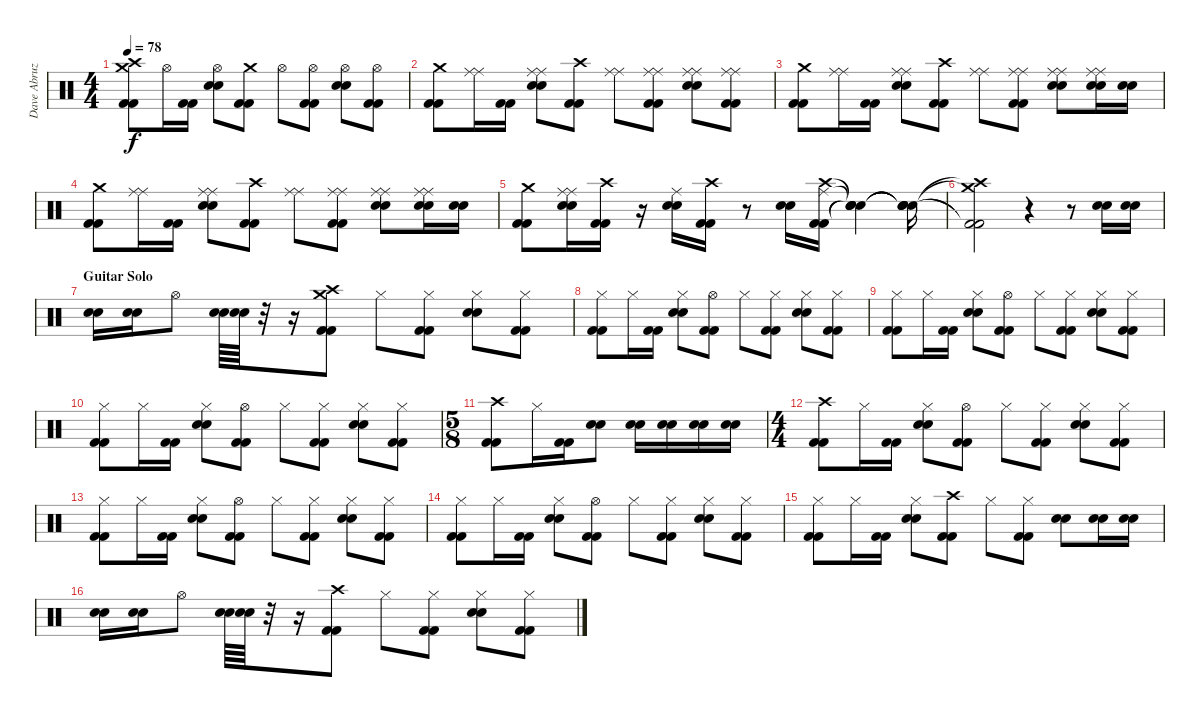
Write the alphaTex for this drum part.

\track ("Dave Abruzzese (live)" "Dave Abruz") {instrument percussion}
\staff {score}
\articulation defaults
\ts (4 4)
\tempo 78
\clef neutral
\ks c
("Crash medium (hit)" "Crash high (hit)" "Kick (hit) 2" "Kick (hit) 2").8{dy f} "Hi-Hat (open)".16 ("Kick (hit) 2" "Kick (hit) 2").16 ("Hi-Hat (open)" "Electric Snare (hit)" "Electric Snare (hit)").8 ("Crash medium (hit)" "Kick (hit) 2" "Kick (hit) 2").8 "Hi-Hat (open)".8 ("Hi-Hat (open)" "Kick (hit) 2" "Kick (hit) 2").8 ("Hi-Hat (open)" "Electric Snare (hit)" "Electric Snare (hit)").8 ("Hi-Hat (open)" "Kick (hit) 2" "Kick (hit) 2").8 |
("Crash medium (hit)" "Kick (hit) 2" "Kick (hit) 2").8 ("Ride (middle)" "Ride (middle)").16 ("Kick (hit) 2" "Kick (hit) 2").16 ("Ride (middle)" "Ride (middle)" "Electric Snare (hit)" "Electric Snare (hit)").8 ("Crash high (hit)" "Kick (hit) 2" "Kick (hit) 2").8 ("Ride (middle)" "Ride (middle)").8 ("Ride (middle)" "Ride (middle)" "Kick (hit) 2" "Kick (hit) 2").8 ("Ride (middle)" "Ride (middle)" "Electric Snare (hit)" "Electric Snare (hit)").8 ("Ride (middle)" "Ride (middle)" "Kick (hit) 2" "Kick (hit) 2").8 |
("Crash medium (hit)" "Kick (hit) 2" "Kick (hit) 2").8 ("Ride (middle)" "Ride (middle)").16 ("Kick (hit) 2" "Kick (hit) 2").16 ("Ride (middle)" "Ride (middle)" "Electric Snare (hit)" "Electric Snare (hit)").8 ("Crash high (hit)" "Kick (hit) 2" "Kick (hit) 2").8 ("Ride (middle)" "Ride (middle)").8 ("Ride (middle)" "Ride (middle)" "Kick (hit) 2" "Kick (hit) 2").8 ("Ride (middle)" "Ride (middle)" "Electric Snare (hit)" "Electric Snare (hit)").8 ("Ride (middle)" "Ride (middle)" "Electric Snare (hit)" "Electric Snare (hit)").16 ("Electric Snare (hit)" "Electric Snare (hit)").16 |
("Crash medium (hit)" "Kick (hit) 2" "Kick (hit) 2").8 ("Ride (middle)" "Ride (middle)").16 ("Kick (hit) 2" "Kick (hit) 2").16 ("Ride (middle)" "Ride (middle)" "Electric Snare (hit)" "Electric Snare (hit)").8 ("Crash high (hit)" "Kick (hit) 2" "Kick (hit) 2").8 ("Ride (middle)" "Ride (middle)").8 ("Ride (middle)" "Ride (middle)" "Kick (hit) 2" "Kick (hit) 2").8 ("Ride (middle)" "Ride (middle)" "Electric Snare (hit)" "Electric Snare (hit)").8 ("Ride (middle)" "Ride (middle)" "Electric Snare (hit)" "Electric Snare (hit)").16 ("Electric Snare (hit)" "Electric Snare (hit)").16 |
("Crash medium (hit)" "Kick (hit) 2" "Kick (hit) 2").8 ("Ride (middle)" "Ride (middle)" "Electric Snare (hit)" "Electric Snare (hit)").16 ("Crash high (hit)" "Kick (hit) 2" "Kick (hit) 2").16 r.16 ("Ride (middle)" "Electric Snare (hit)" "Electric Snare (hit)").16 ("Crash high (hit)" "Kick (hit) 2" "Kick (hit) 2").16 r.8 ("Electric Snare (hit)" "Electric Snare (hit)").16 ("Ride (middle)" "Crash high (hit)" "Kick (hit) 2" "Kick (hit) 2").16 ("Snare (hit)"{t} "Snare (hit)"{t} "Snare (hit)"{t} "Snare (hit)"{t}).4 ("Snare (hit)"{t} "Snare (hit)"{t} "Snare (hit)"{t} "Snare (hit)"{t}).16 |
("Crash medium (hit)"{t} "Crash high (hit)"{t} "Kick (hit) 2"{t} "Kick (hit) 2"{t}).2 r.4 r.8 ("Electric Snare (hit)" "Electric Snare (hit)").16 ("Electric Snare (hit)" "Electric Snare (hit)").16 |
\section ("" "Guitar Solo")
("Electric Snare (hit)" "Electric Snare (hit)").16 ("Electric Snare (hit)" "Electric Snare (hit)").16 "Hi-Hat (open)".8 ("Electric Snare (hit)" "Electric Snare (hit)").64 ("Electric Snare (hit)" "Electric Snare (hit)").64 r.32 r.16 ("Crash medium (hit)" "Crash high (hit)" "Kick (hit) 2" "Kick (hit) 2").8 "Hi-Hat (closed)".8 ("Hi-Hat (closed)" "Kick (hit) 2" "Kick (hit) 2").8 ("Hi-Hat (closed)" "Electric Snare (hit)" "Electric Snare (hit)").8 ("Hi-Hat (closed)" "Kick (hit) 2" "Kick (hit) 2").8 |
("Hi-Hat (closed)" "Kick (hit) 2" "Kick (hit) 2").8 "Hi-Hat (closed)".16 ("Kick (hit) 2" "Kick (hit) 2").16 ("Hi-Hat (closed)" "Electric Snare (hit)" "Electric Snare (hit)").8 ("Hi-Hat (open)" "Kick (hit) 2" "Kick (hit) 2").8 "Hi-Hat (closed)".8 ("Hi-Hat (closed)" "Kick (hit) 2" "Kick (hit) 2").8 ("Hi-Hat (closed)" "Electric Snare (hit)" "Electric Snare (hit)").8 ("Hi-Hat (closed)" "Kick (hit) 2" "Kick (hit) 2").8 |
("Hi-Hat (closed)" "Kick (hit) 2" "Kick (hit) 2").8 "Hi-Hat (closed)".16 ("Kick (hit) 2" "Kick (hit) 2").16 ("Hi-Hat (closed)" "Electric Snare (hit)" "Electric Snare (hit)").8 ("Hi-Hat (open)" "Kick (hit) 2" "Kick (hit) 2").8 "Hi-Hat (closed)".8 ("Hi-Hat (closed)" "Kick (hit) 2" "Kick (hit) 2").8 ("Hi-Hat (closed)" "Electric Snare (hit)" "Electric Snare (hit)").8 ("Hi-Hat (closed)" "Kick (hit) 2" "Kick (hit) 2").8 |
("Hi-Hat (closed)" "Kick (hit) 2" "Kick (hit) 2").8 "Hi-Hat (closed)".16 ("Kick (hit) 2" "Kick (hit) 2").16 ("Hi-Hat (closed)" "Electric Snare (hit)" "Electric Snare (hit)").8 ("Hi-Hat (open)" "Kick (hit) 2" "Kick (hit) 2").8 "Hi-Hat (closed)".8 ("Hi-Hat (closed)" "Kick (hit) 2" "Kick (hit) 2").8 ("Hi-Hat (closed)" "Electric Snare (hit)" "Electric Snare (hit)").8 ("Hi-Hat (closed)" "Kick (hit) 2" "Kick (hit) 2").8 |
\ts (5 8)
("Crash high (hit)" "Kick (hit) 2" "Kick (hit) 2").8 "Hi-Hat (closed)".16 ("Kick (hit) 2" "Kick (hit) 2").16 ("Electric Snare (hit)" "Electric Snare (hit)").8 ("Electric Snare (hit)" "Electric Snare (hit)").16 ("Electric Snare (hit)" "Electric Snare (hit)").16 ("Electric Snare (hit)" "Electric Snare (hit)").16 ("Electric Snare (hit)" "Electric Snare (hit)").16 |
\ts (4 4)
("Crash high (hit)" "Kick (hit) 2" "Kick (hit) 2").8 "Hi-Hat (closed)".16 ("Kick (hit) 2" "Kick (hit) 2").16 ("Hi-Hat (closed)" "Electric Snare (hit)" "Electric Snare (hit)").8 ("Hi-Hat (open)" "Kick (hit) 2" "Kick (hit) 2").8 "Hi-Hat (closed)".8 ("Hi-Hat (closed)" "Kick (hit) 2" "Kick (hit) 2").8 ("Hi-Hat (closed)" "Electric Snare (hit)" "Electric Snare (hit)").8 ("Hi-Hat (closed)" "Kick (hit) 2" "Kick (hit) 2").8 |
("Hi-Hat (closed)" "Kick (hit) 2" "Kick (hit) 2").8 "Hi-Hat (closed)".16 ("Kick (hit) 2" "Kick (hit) 2").16 ("Hi-Hat (closed)" "Electric Snare (hit)" "Electric Snare (hit)").8 ("Hi-Hat (open)" "Kick (hit) 2" "Kick (hit) 2").8 "Hi-Hat (closed)".8 ("Hi-Hat (closed)" "Kick (hit) 2" "Kick (hit) 2").8 ("Hi-Hat (closed)" "Electric Snare (hit)" "Electric Snare (hit)").8 ("Hi-Hat (closed)" "Kick (hit) 2" "Kick (hit) 2").8 |
("Hi-Hat (closed)" "Kick (hit) 2" "Kick (hit) 2").8 "Hi-Hat (closed)".16 ("Kick (hit) 2" "Kick (hit) 2").16 ("Hi-Hat (closed)" "Electric Snare (hit)" "Electric Snare (hit)").8 ("Hi-Hat (open)" "Kick (hit) 2" "Kick (hit) 2").8 "Hi-Hat (closed)".8 ("Hi-Hat (closed)" "Kick (hit) 2" "Kick (hit) 2").8 ("Hi-Hat (closed)" "Electric Snare (hit)" "Electric Snare (hit)").8 ("Hi-Hat (closed)" "Kick (hit) 2" "Kick (hit) 2").8 |
("Hi-Hat (closed)" "Kick (hit) 2" "Kick (hit) 2").8 "Hi-Hat (closed)".16 ("Kick (hit) 2" "Kick (hit) 2").16 ("Hi-Hat (closed)" "Electric Snare (hit)" "Electric Snare (hit)").8 ("Crash high (hit)" "Kick (hit) 2" "Kick (hit) 2").8 "Hi-Hat (closed)".8 ("Hi-Hat (closed)" "Kick (hit) 2" "Kick (hit) 2").8 ("Electric Snare (hit)" "Electric Snare (hit)").8 ("Electric Snare (hit)" "Electric Snare (hit)").16 ("Electric Snare (hit)" "Electric Snare (hit)").16 |
("Electric Snare (hit)" "Electric Snare (hit)").16 ("Electric Snare (hit)" "Electric Snare (hit)").16 "Hi-Hat (open)".8 ("Electric Snare (hit)" "Electric Snare (hit)").64 ("Electric Snare (hit)" "Electric Snare (hit)").64 r.32 r.16 ("Crash high (hit)" "Kick (hit) 2" "Kick (hit) 2").8 "Hi-Hat (closed)".8 ("Hi-Hat (closed)" "Kick (hit) 2" "Kick (hit) 2").8 ("Hi-Hat (closed)" "Electric Snare (hit)" "Electric Snare (hit)").8 ("Hi-Hat (closed)" "Kick (hit) 2" "Kick (hit) 2").8
